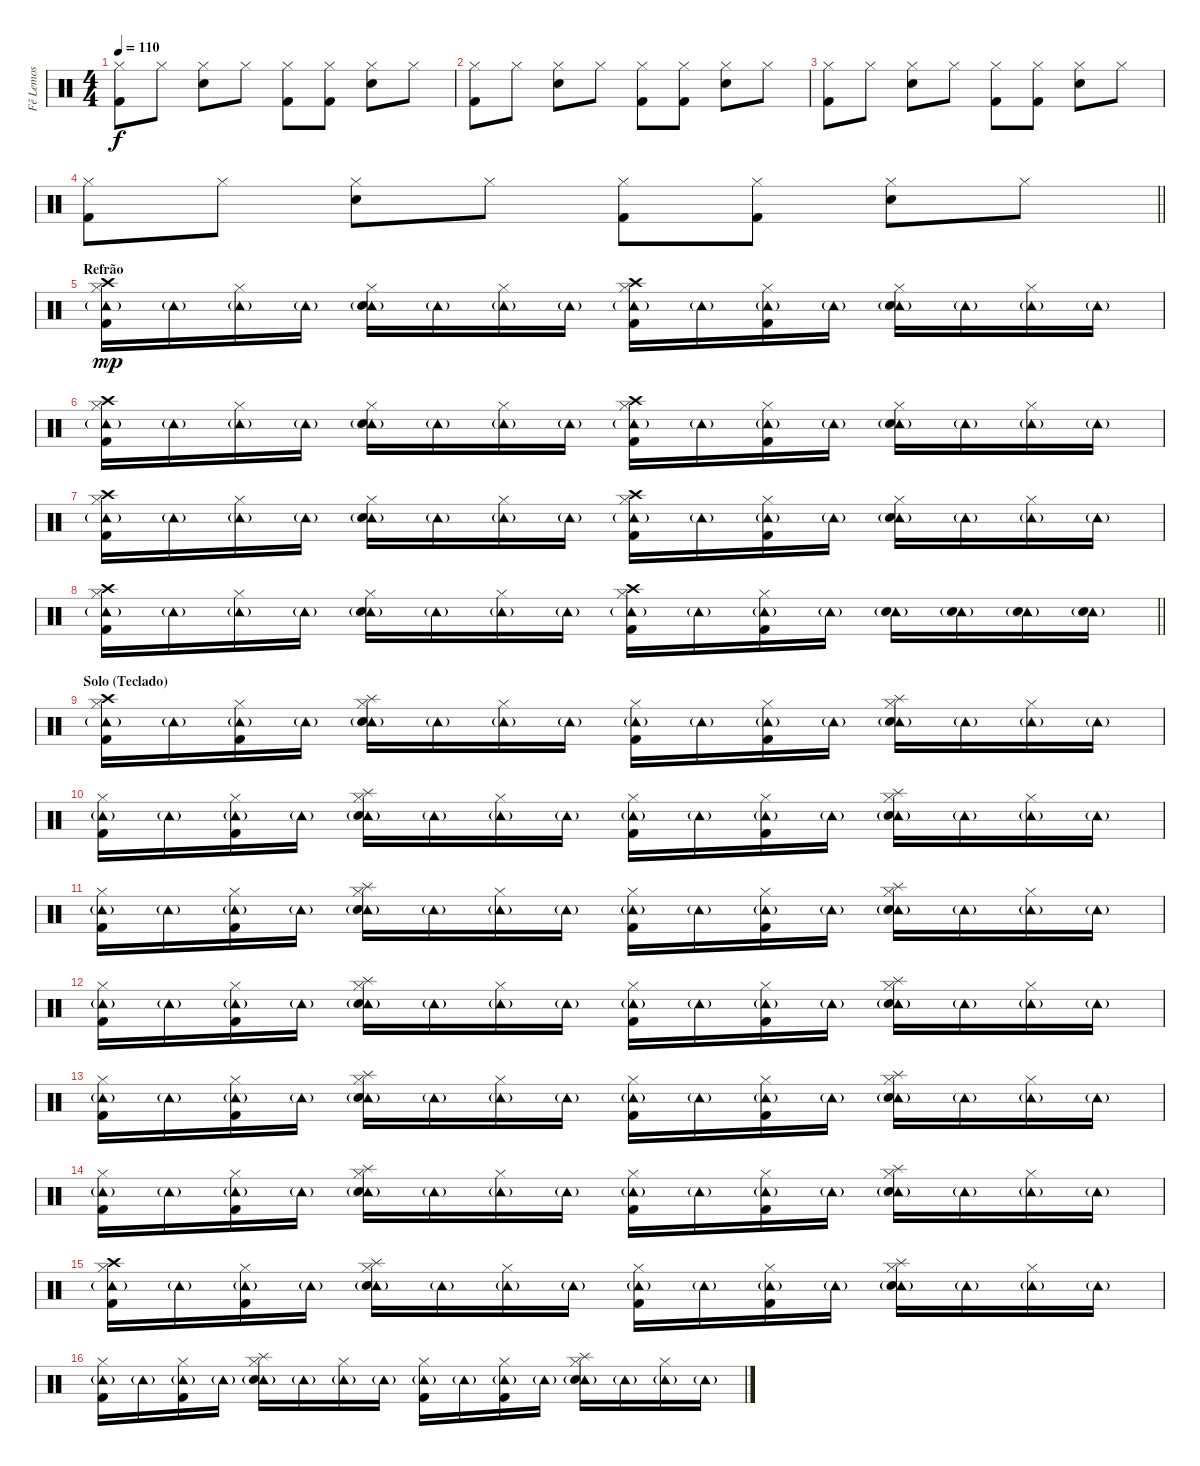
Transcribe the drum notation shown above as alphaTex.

\track ("Fê Lemos" "Fê Lemos") {instrument percussion}
\staff {score}
\articulation defaults
\ts (4 4)
\tempo 110
\clef neutral
\ks c
("Hi-Hat (closed)" "Kick (hit) 2").8{dy f} "Hi-Hat (closed)".8 ("Hi-Hat (closed)" "Electric Snare (hit)").8 "Hi-Hat (closed)".8 ("Hi-Hat (closed)" "Kick (hit) 2").8 ("Hi-Hat (closed)" "Kick (hit) 2").8 ("Hi-Hat (closed)" "Electric Snare (hit)").8 "Hi-Hat (closed)".8 |
("Hi-Hat (closed)" "Kick (hit) 2").8 "Hi-Hat (closed)".8 ("Hi-Hat (closed)" "Electric Snare (hit)").8 "Hi-Hat (closed)".8 ("Hi-Hat (closed)" "Kick (hit) 2").8 ("Hi-Hat (closed)" "Kick (hit) 2").8 ("Hi-Hat (closed)" "Electric Snare (hit)").8 "Hi-Hat (closed)".8 |
("Hi-Hat (closed)" "Kick (hit) 2").8 "Hi-Hat (closed)".8 ("Hi-Hat (closed)" "Electric Snare (hit)").8 "Hi-Hat (closed)".8 ("Hi-Hat (closed)" "Kick (hit) 2").8 ("Hi-Hat (closed)" "Kick (hit) 2").8 ("Hi-Hat (closed)" "Electric Snare (hit)").8 "Hi-Hat (closed)".8 |
\barLineRight lightlight
("Hi-Hat (closed)" "Kick (hit) 2").8 "Hi-Hat (closed)".8 ("Hi-Hat (closed)" "Electric Snare (hit)").8 "Hi-Hat (closed)".8 ("Hi-Hat (closed)" "Kick (hit) 2").8 ("Hi-Hat (closed)" "Kick (hit) 2").8 ("Hi-Hat (closed)" "Electric Snare (hit)").8 "Hi-Hat (closed)".8 |
\section ("" "Refrão")
("Tambourine (hit)"{g} "Crash high (hit)" "Hi-Hat (closed)" "Kick (hit) 2").16{dy mp} "Tambourine (hit)"{g}.16 ("Tambourine (hit)"{g} "Hi-Hat (closed)").16 "Tambourine (hit)"{g}.16 ("Tambourine (hit)"{g} "Hi-Hat (closed)" "Electric Snare (hit)").16 "Tambourine (hit)"{g}.16 ("Tambourine (hit)"{g} "Hi-Hat (closed)").16 "Tambourine (hit)"{g}.16 ("Tambourine (hit)"{g} "Crash high (hit)" "Hi-Hat (closed)" "Kick (hit) 2").16 "Tambourine (hit)"{g}.16 ("Tambourine (hit)"{g} "Hi-Hat (closed)" "Kick (hit) 2").16 "Tambourine (hit)"{g}.16 ("Tambourine (hit)"{g} "Hi-Hat (closed)" "Electric Snare (hit)").16 "Tambourine (hit)"{g}.16 ("Tambourine (hit)"{g} "Hi-Hat (closed)").16 "Tambourine (hit)"{g}.16 |
("Tambourine (hit)"{g} "Crash high (hit)" "Hi-Hat (closed)" "Kick (hit) 2").16 "Tambourine (hit)"{g}.16 ("Tambourine (hit)"{g} "Hi-Hat (closed)").16 "Tambourine (hit)"{g}.16 ("Tambourine (hit)"{g} "Hi-Hat (closed)" "Electric Snare (hit)").16 "Tambourine (hit)"{g}.16 ("Tambourine (hit)"{g} "Hi-Hat (closed)").16 "Tambourine (hit)"{g}.16 ("Tambourine (hit)"{g} "Crash high (hit)" "Hi-Hat (closed)" "Kick (hit) 2").16 "Tambourine (hit)"{g}.16 ("Tambourine (hit)"{g} "Hi-Hat (closed)" "Kick (hit) 2").16 "Tambourine (hit)"{g}.16 ("Tambourine (hit)"{g} "Hi-Hat (closed)" "Electric Snare (hit)").16 "Tambourine (hit)"{g}.16 ("Tambourine (hit)"{g} "Hi-Hat (closed)").16 "Tambourine (hit)"{g}.16 |
("Tambourine (hit)"{g} "Crash high (hit)" "Hi-Hat (closed)" "Kick (hit) 2").16 "Tambourine (hit)"{g}.16 ("Tambourine (hit)"{g} "Hi-Hat (closed)").16 "Tambourine (hit)"{g}.16 ("Tambourine (hit)"{g} "Hi-Hat (closed)" "Electric Snare (hit)").16 "Tambourine (hit)"{g}.16 ("Tambourine (hit)"{g} "Hi-Hat (closed)").16 "Tambourine (hit)"{g}.16 ("Tambourine (hit)"{g} "Crash high (hit)" "Hi-Hat (closed)" "Kick (hit) 2").16 "Tambourine (hit)"{g}.16 ("Tambourine (hit)"{g} "Hi-Hat (closed)" "Kick (hit) 2").16 "Tambourine (hit)"{g}.16 ("Tambourine (hit)"{g} "Hi-Hat (closed)" "Electric Snare (hit)").16 "Tambourine (hit)"{g}.16 ("Tambourine (hit)"{g} "Hi-Hat (closed)").16 "Tambourine (hit)"{g}.16 |
\barLineRight lightlight
("Tambourine (hit)"{g} "Crash high (hit)" "Hi-Hat (closed)" "Kick (hit) 2").16 "Tambourine (hit)"{g}.16 ("Tambourine (hit)"{g} "Hi-Hat (closed)").16 "Tambourine (hit)"{g}.16 ("Tambourine (hit)"{g} "Hi-Hat (closed)" "Electric Snare (hit)").16 "Tambourine (hit)"{g}.16 ("Tambourine (hit)"{g} "Hi-Hat (closed)").16 "Tambourine (hit)"{g}.16 ("Tambourine (hit)"{g} "Crash high (hit)" "Hi-Hat (closed)" "Kick (hit) 2").16 "Tambourine (hit)"{g}.16 ("Tambourine (hit)"{g} "Hi-Hat (closed)" "Kick (hit) 2").16 "Tambourine (hit)"{g}.16 ("Tambourine (hit)"{g} "Electric Snare (hit)").16 ("Tambourine (hit)"{g} "Electric Snare (hit)").16 ("Tambourine (hit)"{g} "Electric Snare (hit)").16 ("Tambourine (hit)"{g} "Electric Snare (hit)").16 |
\section ("" "Solo (Teclado)")
("Tambourine (hit)"{g} "Crash high (hit)" "Hi-Hat (closed)" "Kick (hit) 2").16 "Tambourine (hit)"{g}.16 ("Tambourine (hit)"{g} "Hi-Hat (closed)" "Kick (hit) 2").16 "Tambourine (hit)"{g}.16 ("Tambourine (hit)"{g} "Splash (hit)" "Hi-Hat (closed)" "Electric Snare (hit)").16 "Tambourine (hit)"{g}.16 ("Tambourine (hit)"{g} "Hi-Hat (closed)").16 "Tambourine (hit)"{g}.16 ("Tambourine (hit)"{g} "Hi-Hat (closed)" "Kick (hit) 2").16 "Tambourine (hit)"{g}.16 ("Tambourine (hit)"{g} "Hi-Hat (closed)" "Kick (hit) 2").16 "Tambourine (hit)"{g}.16 ("Tambourine (hit)"{g} "Splash (hit)" "Hi-Hat (closed)" "Electric Snare (hit)").16 "Tambourine (hit)"{g}.16 ("Tambourine (hit)"{g} "Hi-Hat (closed)").16 "Tambourine (hit)"{g}.16 |
("Tambourine (hit)"{g} "Hi-Hat (closed)" "Kick (hit) 2").16 "Tambourine (hit)"{g}.16 ("Tambourine (hit)"{g} "Hi-Hat (closed)" "Kick (hit) 2").16 "Tambourine (hit)"{g}.16 ("Tambourine (hit)"{g} "Splash (hit)" "Hi-Hat (closed)" "Electric Snare (hit)").16 "Tambourine (hit)"{g}.16 ("Tambourine (hit)"{g} "Hi-Hat (closed)").16 "Tambourine (hit)"{g}.16 ("Tambourine (hit)"{g} "Hi-Hat (closed)" "Kick (hit) 2").16 "Tambourine (hit)"{g}.16 ("Tambourine (hit)"{g} "Hi-Hat (closed)" "Kick (hit) 2").16 "Tambourine (hit)"{g}.16 ("Tambourine (hit)"{g} "Splash (hit)" "Hi-Hat (closed)" "Electric Snare (hit)").16 "Tambourine (hit)"{g}.16 ("Tambourine (hit)"{g} "Hi-Hat (closed)").16 "Tambourine (hit)"{g}.16 |
("Tambourine (hit)"{g} "Hi-Hat (closed)" "Kick (hit) 2").16 "Tambourine (hit)"{g}.16 ("Tambourine (hit)"{g} "Hi-Hat (closed)" "Kick (hit) 2").16 "Tambourine (hit)"{g}.16 ("Tambourine (hit)"{g} "Splash (hit)" "Hi-Hat (closed)" "Electric Snare (hit)").16 "Tambourine (hit)"{g}.16 ("Tambourine (hit)"{g} "Hi-Hat (closed)").16 "Tambourine (hit)"{g}.16 ("Tambourine (hit)"{g} "Hi-Hat (closed)" "Kick (hit) 2").16 "Tambourine (hit)"{g}.16 ("Tambourine (hit)"{g} "Hi-Hat (closed)" "Kick (hit) 2").16 "Tambourine (hit)"{g}.16 ("Tambourine (hit)"{g} "Splash (hit)" "Hi-Hat (closed)" "Electric Snare (hit)").16 "Tambourine (hit)"{g}.16 ("Tambourine (hit)"{g} "Hi-Hat (closed)").16 "Tambourine (hit)"{g}.16 |
("Tambourine (hit)"{g} "Hi-Hat (closed)" "Kick (hit) 2").16 "Tambourine (hit)"{g}.16 ("Tambourine (hit)"{g} "Hi-Hat (closed)" "Kick (hit) 2").16 "Tambourine (hit)"{g}.16 ("Tambourine (hit)"{g} "Splash (hit)" "Hi-Hat (closed)" "Electric Snare (hit)").16 "Tambourine (hit)"{g}.16 ("Tambourine (hit)"{g} "Hi-Hat (closed)").16 "Tambourine (hit)"{g}.16 ("Tambourine (hit)"{g} "Hi-Hat (closed)" "Kick (hit) 2").16 "Tambourine (hit)"{g}.16 ("Tambourine (hit)"{g} "Hi-Hat (closed)" "Kick (hit) 2").16 "Tambourine (hit)"{g}.16 ("Tambourine (hit)"{g} "Splash (hit)" "Hi-Hat (closed)" "Electric Snare (hit)").16 "Tambourine (hit)"{g}.16 ("Tambourine (hit)"{g} "Hi-Hat (closed)").16 "Tambourine (hit)"{g}.16 |
("Tambourine (hit)"{g} "Hi-Hat (closed)" "Kick (hit) 2").16 "Tambourine (hit)"{g}.16 ("Tambourine (hit)"{g} "Hi-Hat (closed)" "Kick (hit) 2").16 "Tambourine (hit)"{g}.16 ("Tambourine (hit)"{g} "Splash (hit)" "Hi-Hat (closed)" "Electric Snare (hit)").16 "Tambourine (hit)"{g}.16 ("Tambourine (hit)"{g} "Hi-Hat (closed)").16 "Tambourine (hit)"{g}.16 ("Tambourine (hit)"{g} "Hi-Hat (closed)" "Kick (hit) 2").16 "Tambourine (hit)"{g}.16 ("Tambourine (hit)"{g} "Hi-Hat (closed)" "Kick (hit) 2").16 "Tambourine (hit)"{g}.16 ("Tambourine (hit)"{g} "Splash (hit)" "Hi-Hat (closed)" "Electric Snare (hit)").16 "Tambourine (hit)"{g}.16 ("Tambourine (hit)"{g} "Hi-Hat (closed)").16 "Tambourine (hit)"{g}.16 |
("Tambourine (hit)"{g} "Hi-Hat (closed)" "Kick (hit) 2").16 "Tambourine (hit)"{g}.16 ("Tambourine (hit)"{g} "Hi-Hat (closed)" "Kick (hit) 2").16 "Tambourine (hit)"{g}.16 ("Tambourine (hit)"{g} "Splash (hit)" "Hi-Hat (closed)" "Electric Snare (hit)").16 "Tambourine (hit)"{g}.16 ("Tambourine (hit)"{g} "Hi-Hat (closed)").16 "Tambourine (hit)"{g}.16 ("Tambourine (hit)"{g} "Hi-Hat (closed)" "Kick (hit) 2").16 "Tambourine (hit)"{g}.16 ("Tambourine (hit)"{g} "Hi-Hat (closed)" "Kick (hit) 2").16 "Tambourine (hit)"{g}.16 ("Tambourine (hit)"{g} "Splash (hit)" "Hi-Hat (closed)" "Electric Snare (hit)").16 "Tambourine (hit)"{g}.16 ("Tambourine (hit)"{g} "Hi-Hat (closed)").16 "Tambourine (hit)"{g}.16 |
("Tambourine (hit)"{g} "Crash high (hit)" "Hi-Hat (closed)" "Kick (hit) 2").16 "Tambourine (hit)"{g}.16 ("Tambourine (hit)"{g} "Hi-Hat (closed)" "Kick (hit) 2").16 "Tambourine (hit)"{g}.16 ("Tambourine (hit)"{g} "Splash (hit)" "Hi-Hat (closed)" "Electric Snare (hit)").16 "Tambourine (hit)"{g}.16 ("Tambourine (hit)"{g} "Hi-Hat (closed)").16 "Tambourine (hit)"{g}.16 ("Tambourine (hit)"{g} "Hi-Hat (closed)" "Kick (hit) 2").16 "Tambourine (hit)"{g}.16 ("Tambourine (hit)"{g} "Hi-Hat (closed)" "Kick (hit) 2").16 "Tambourine (hit)"{g}.16 ("Tambourine (hit)"{g} "Splash (hit)" "Hi-Hat (closed)" "Electric Snare (hit)").16 "Tambourine (hit)"{g}.16 ("Tambourine (hit)"{g} "Hi-Hat (closed)").16 "Tambourine (hit)"{g}.16 |
("Tambourine (hit)"{g} "Hi-Hat (closed)" "Kick (hit) 2").16 "Tambourine (hit)"{g}.16 ("Tambourine (hit)"{g} "Hi-Hat (closed)" "Kick (hit) 2").16 "Tambourine (hit)"{g}.16 ("Tambourine (hit)"{g} "Splash (hit)" "Hi-Hat (closed)" "Electric Snare (hit)").16 "Tambourine (hit)"{g}.16 ("Tambourine (hit)"{g} "Hi-Hat (closed)").16 "Tambourine (hit)"{g}.16 ("Tambourine (hit)"{g} "Hi-Hat (closed)" "Kick (hit) 2").16 "Tambourine (hit)"{g}.16 ("Tambourine (hit)"{g} "Hi-Hat (closed)" "Kick (hit) 2").16 "Tambourine (hit)"{g}.16 ("Tambourine (hit)"{g} "Splash (hit)" "Hi-Hat (closed)" "Electric Snare (hit)").16 "Tambourine (hit)"{g}.16 ("Tambourine (hit)"{g} "Hi-Hat (closed)").16 "Tambourine (hit)"{g}.16
